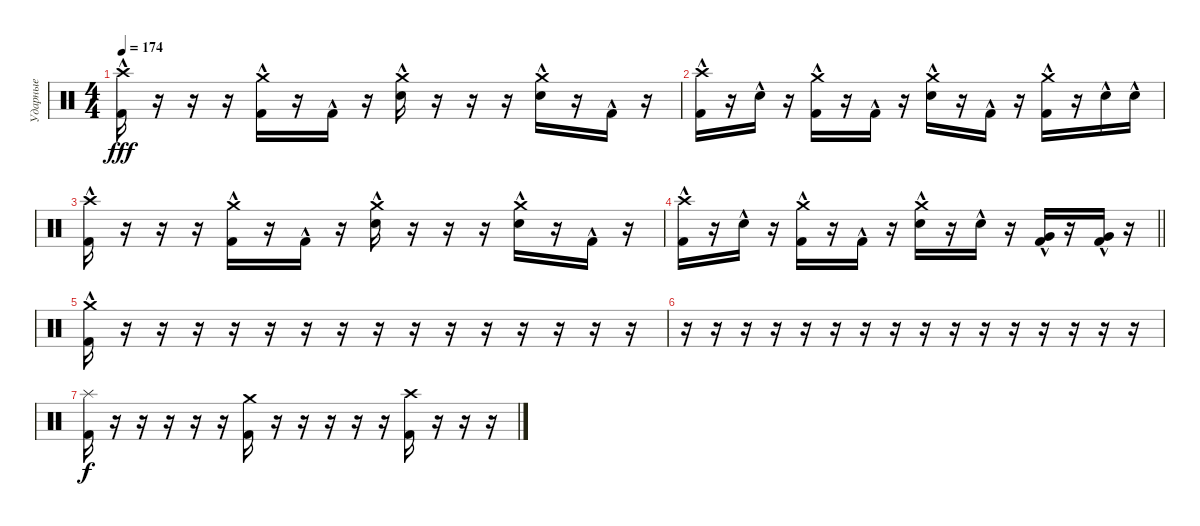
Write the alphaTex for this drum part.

\track ("Ударные" "Ударные") {instrument percussion}
\staff {score}
\articulation defaults
\ts (4 4)
\tempo 174
\clef neutral
\ks c
("Crash high (hit)" "Kick (hit) 2"{hac}).16{dy fff} r.16 r.16 r.16 ("Crash medium (hit)" "Kick (hit) 2"{hac}).16 r.16 "Kick (hit) 2"{hac}.16 r.16 ("Crash medium (hit)" "Snare (hit) 2"{hac}).16 r.16 r.16 r.16 ("Crash medium (hit)" "Snare (hit) 2"{hac}).16 r.16 "Kick (hit) 2"{hac}.16 r.16 |
("Crash high (hit)" "Kick (hit) 2"{hac}).16 r.16 "Snare (hit) 2"{hac}.16 r.16 ("Crash medium (hit)" "Kick (hit) 2"{hac}).16 r.16 "Kick (hit) 2"{hac}.16 r.16 ("Crash medium (hit)" "Snare (hit) 2"{hac}).16 r.16 "Kick (hit) 2"{hac}.16 r.16 ("Crash medium (hit)" "Kick (hit) 2"{hac}).16 r.16 "Snare (hit) 2"{hac}.16 "Snare (hit) 2"{hac}.16 |
("Crash high (hit)" "Kick (hit) 2"{hac}).16 r.16 r.16 r.16 ("Crash medium (hit)" "Kick (hit) 2"{hac}).16 r.16 "Kick (hit) 2"{hac}.16 r.16 ("Crash medium (hit)" "Snare (hit) 2"{hac}).16 r.16 r.16 r.16 ("Crash medium (hit)" "Snare (hit) 2"{hac}).16 r.16 "Kick (hit) 2"{hac}.16 r.16 |
\barLineRight lightlight
("Crash high (hit)" "Kick (hit) 2"{hac}).16 r.16 "Snare (hit) 2"{hac}.16 r.16 ("Crash medium (hit)" "Kick (hit) 2"{hac}).16 r.16 "Kick (hit) 2"{hac}.16 r.16 ("Crash medium (hit)" "Snare (hit) 2"{hac}).16 r.16 "Snare (hit) 2"{hac}.16 r.16 ("Very Low Tom (hit)"{hac} "Kick (hit) 2").16 r.16 ("Very Low Tom (hit)"{hac} "Kick (hit) 2").16 r.16 |
("Kick (hit) 2"{hac} "Crash medium (hit)").16 r.16 r.16 r.16 r.16 r.16 r.16 r.16 r.16 r.16 r.16 r.16 r.16 r.16 r.16 r.16 |
r.16 r.16 r.16 r.16 r.16 r.16 r.16 r.16 r.16 r.16 r.16 r.16 r.16 r.16 r.16 r.16 |
("Kick (hit) 2" "Splash (hit)").16{dy f} r.16 r.16 r.16 r.16 r.16 ("Kick (hit) 2" "Crash medium (hit)").16 r.16 r.16 r.16 r.16 r.16 ("Crash high (hit)" "Kick (hit) 2").16 r.16 r.16 r.16
